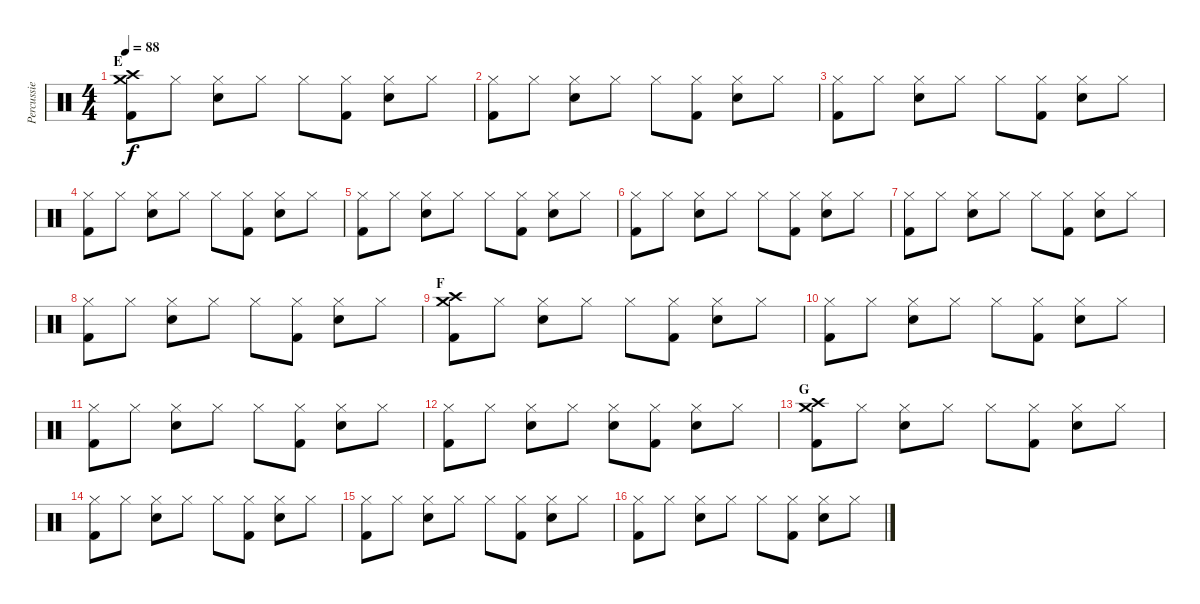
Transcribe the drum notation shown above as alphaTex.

\track ("Percussie" "Percussie") {instrument percussion}
\staff {score}
\articulation defaults
\ts (4 4)
\section ("" "E")
\tempo 88
\clef neutral
\ks c
("Crash high (hit)" "Crash medium (hit)" "Kick (hit) 2").8{dy f} "Hi-Hat (closed)".8 ("Hi-Hat (closed)" "Snare (hit) 2").8 "Hi-Hat (closed)".8 "Hi-Hat (closed)".8 ("Hi-Hat (closed)" "Kick (hit) 2").8 ("Hi-Hat (closed)" "Snare (hit) 2").8 "Hi-Hat (closed)".8 |
("Hi-Hat (closed)" "Kick (hit) 2").8 "Hi-Hat (closed)".8 ("Hi-Hat (closed)" "Snare (hit) 2").8 "Hi-Hat (closed)".8 "Hi-Hat (closed)".8 ("Hi-Hat (closed)" "Kick (hit) 2").8 ("Hi-Hat (closed)" "Snare (hit) 2").8 "Hi-Hat (closed)".8 |
("Hi-Hat (closed)" "Kick (hit) 2").8 "Hi-Hat (closed)".8 ("Hi-Hat (closed)" "Snare (hit) 2").8 "Hi-Hat (closed)".8 "Hi-Hat (closed)".8 ("Hi-Hat (closed)" "Kick (hit) 2").8 ("Hi-Hat (closed)" "Snare (hit) 2").8 "Hi-Hat (closed)".8 |
("Hi-Hat (closed)" "Kick (hit) 2").8 "Hi-Hat (closed)".8 ("Hi-Hat (closed)" "Snare (hit) 2").8 "Hi-Hat (closed)".8 "Hi-Hat (closed)".8 ("Hi-Hat (closed)" "Kick (hit) 2").8 ("Hi-Hat (closed)" "Snare (hit) 2").8 "Hi-Hat (closed)".8 |
("Hi-Hat (closed)" "Kick (hit) 2").8 "Hi-Hat (closed)".8 ("Hi-Hat (closed)" "Snare (hit) 2").8 "Hi-Hat (closed)".8 "Hi-Hat (closed)".8 ("Hi-Hat (closed)" "Kick (hit) 2").8 ("Hi-Hat (closed)" "Snare (hit) 2").8 "Hi-Hat (closed)".8 |
("Hi-Hat (closed)" "Kick (hit) 2").8 "Hi-Hat (closed)".8 ("Hi-Hat (closed)" "Snare (hit) 2").8 "Hi-Hat (closed)".8 "Hi-Hat (closed)".8 ("Hi-Hat (closed)" "Kick (hit) 2").8 ("Hi-Hat (closed)" "Snare (hit) 2").8 "Hi-Hat (closed)".8 |
("Hi-Hat (closed)" "Kick (hit) 2").8 "Hi-Hat (closed)".8 ("Hi-Hat (closed)" "Snare (hit) 2").8 "Hi-Hat (closed)".8 "Hi-Hat (closed)".8 ("Hi-Hat (closed)" "Kick (hit) 2").8 ("Hi-Hat (closed)" "Snare (hit) 2").8 "Hi-Hat (closed)".8 |
("Hi-Hat (closed)" "Kick (hit) 2").8 "Hi-Hat (closed)".8 ("Hi-Hat (closed)" "Snare (hit) 2").8 "Hi-Hat (closed)".8 "Hi-Hat (closed)".8 ("Hi-Hat (closed)" "Kick (hit) 2").8 ("Hi-Hat (closed)" "Snare (hit) 2").8 "Hi-Hat (closed)".8 |
\section ("" "F")
("Crash medium (hit)" "Crash high (hit)" "Kick (hit) 2").8 "Hi-Hat (closed)".8 ("Hi-Hat (closed)" "Snare (hit) 2").8 "Hi-Hat (closed)".8 "Hi-Hat (closed)".8 ("Hi-Hat (closed)" "Kick (hit) 2").8 ("Hi-Hat (closed)" "Snare (hit) 2").8 "Hi-Hat (closed)".8 |
("Hi-Hat (closed)" "Kick (hit) 2").8 "Hi-Hat (closed)".8 ("Hi-Hat (closed)" "Snare (hit) 2").8 "Hi-Hat (closed)".8 "Hi-Hat (closed)".8 ("Hi-Hat (closed)" "Kick (hit) 2").8 ("Hi-Hat (closed)" "Snare (hit) 2").8 "Hi-Hat (closed)".8 |
("Hi-Hat (closed)" "Kick (hit) 2").8 "Hi-Hat (closed)".8 ("Hi-Hat (closed)" "Snare (hit) 2").8 "Hi-Hat (closed)".8 "Hi-Hat (closed)".8 ("Hi-Hat (closed)" "Kick (hit) 2").8 ("Hi-Hat (closed)" "Snare (hit) 2").8 "Hi-Hat (closed)".8 |
("Hi-Hat (closed)" "Kick (hit) 2").8 "Hi-Hat (closed)".8 ("Hi-Hat (closed)" "Snare (hit) 2").8 "Hi-Hat (closed)".8 ("Hi-Hat (closed)" "Snare (hit) 2").8 ("Hi-Hat (closed)" "Kick (hit) 2").8 ("Hi-Hat (closed)" "Snare (hit) 2").8 "Hi-Hat (closed)".8 |
\section ("" "G")
("Crash high (hit)" "Crash medium (hit)" "Kick (hit) 2").8 "Hi-Hat (closed)".8 ("Hi-Hat (closed)" "Snare (hit) 2").8 "Hi-Hat (closed)".8 "Hi-Hat (closed)".8 ("Hi-Hat (closed)" "Kick (hit) 2").8 ("Hi-Hat (closed)" "Snare (hit) 2").8 "Hi-Hat (closed)".8 |
("Hi-Hat (closed)" "Kick (hit) 2").8 "Hi-Hat (closed)".8 ("Hi-Hat (closed)" "Snare (hit) 2").8 "Hi-Hat (closed)".8 "Hi-Hat (closed)".8 ("Hi-Hat (closed)" "Kick (hit) 2").8 ("Hi-Hat (closed)" "Snare (hit) 2").8 "Hi-Hat (closed)".8 |
("Hi-Hat (closed)" "Kick (hit) 2").8 "Hi-Hat (closed)".8 ("Hi-Hat (closed)" "Snare (hit) 2").8 "Hi-Hat (closed)".8 "Hi-Hat (closed)".8 ("Hi-Hat (closed)" "Kick (hit) 2").8 ("Hi-Hat (closed)" "Snare (hit) 2").8 "Hi-Hat (closed)".8 |
("Hi-Hat (closed)" "Kick (hit) 2").8 "Hi-Hat (closed)".8 ("Hi-Hat (closed)" "Snare (hit) 2").8 "Hi-Hat (closed)".8 "Hi-Hat (closed)".8 ("Hi-Hat (closed)" "Kick (hit) 2").8 ("Hi-Hat (closed)" "Snare (hit) 2").8 "Hi-Hat (closed)".8
